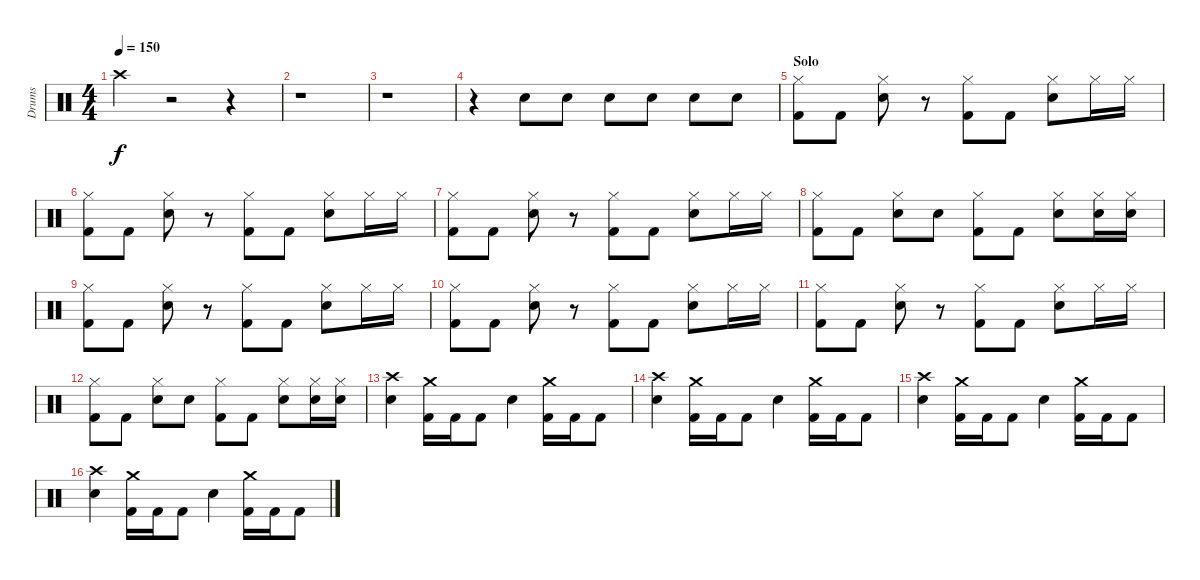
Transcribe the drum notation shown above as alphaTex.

\track ("Drums" "Drums") {instrument percussion}
\staff {score}
\articulation defaults
\ts (4 4)
\tempo 150
\clef neutral
\ks c "Crash high (hit)".4{dy f}
r.2 r.4 |
r.1 |
r.1 |
r.4 "Electric Snare (hit)".8 "Electric Snare (hit)".8 "Electric Snare (hit)".8 "Electric Snare (hit)".8 "Electric Snare (hit)".8 "Electric Snare (hit)".8 |
\section ("" "Solo")
("Hi-Hat (closed)" "Kick (hit) 2").8 "Kick (hit) 2".8 ("Hi-Hat (closed)" "Electric Snare (hit)").8 r.8 ("Hi-Hat (closed)" "Kick (hit) 2").8 "Kick (hit) 2".8 ("Hi-Hat (closed)" "Electric Snare (hit)").8 "Hi-Hat (closed)".16 "Hi-Hat (closed)".16 |
("Hi-Hat (closed)" "Kick (hit) 2").8 "Kick (hit) 2".8 ("Hi-Hat (closed)" "Electric Snare (hit)").8 r.8 ("Hi-Hat (closed)" "Kick (hit) 2").8 "Kick (hit) 2".8 ("Hi-Hat (closed)" "Electric Snare (hit)").8 "Hi-Hat (closed)".16 "Hi-Hat (closed)".16 |
("Hi-Hat (closed)" "Kick (hit) 2").8 "Kick (hit) 2".8 ("Hi-Hat (closed)" "Electric Snare (hit)").8 r.8 ("Hi-Hat (closed)" "Kick (hit) 2").8 "Kick (hit) 2".8 ("Hi-Hat (closed)" "Electric Snare (hit)").8 "Hi-Hat (closed)".16 "Hi-Hat (closed)".16 |
("Hi-Hat (closed)" "Kick (hit) 2").8 "Kick (hit) 2".8 ("Hi-Hat (closed)" "Electric Snare (hit)").8 "Electric Snare (hit)".8 ("Hi-Hat (closed)" "Kick (hit) 2").8 "Kick (hit) 2".8 ("Hi-Hat (closed)" "Electric Snare (hit)").8 ("Hi-Hat (closed)" "Electric Snare (hit)").16 ("Hi-Hat (closed)" "Electric Snare (hit)").16 |
("Hi-Hat (closed)" "Kick (hit) 2").8 "Kick (hit) 2".8 ("Hi-Hat (closed)" "Electric Snare (hit)").8 r.8 ("Hi-Hat (closed)" "Kick (hit) 2").8 "Kick (hit) 2".8 ("Hi-Hat (closed)" "Electric Snare (hit)").8 "Hi-Hat (closed)".16 "Hi-Hat (closed)".16 |
("Hi-Hat (closed)" "Kick (hit) 2").8 "Kick (hit) 2".8 ("Hi-Hat (closed)" "Electric Snare (hit)").8 r.8 ("Hi-Hat (closed)" "Kick (hit) 2").8 "Kick (hit) 2".8 ("Hi-Hat (closed)" "Electric Snare (hit)").8 "Hi-Hat (closed)".16 "Hi-Hat (closed)".16 |
("Hi-Hat (closed)" "Kick (hit) 2").8 "Kick (hit) 2".8 ("Hi-Hat (closed)" "Electric Snare (hit)").8 r.8 ("Hi-Hat (closed)" "Kick (hit) 2").8 "Kick (hit) 2".8 ("Hi-Hat (closed)" "Electric Snare (hit)").8 "Hi-Hat (closed)".16 "Hi-Hat (closed)".16 |
("Hi-Hat (closed)" "Kick (hit) 2").8 "Kick (hit) 2".8 ("Hi-Hat (closed)" "Electric Snare (hit)").8 "Electric Snare (hit)".8 ("Hi-Hat (closed)" "Kick (hit) 2").8 "Kick (hit) 2".8 ("Hi-Hat (closed)" "Electric Snare (hit)").8 ("Hi-Hat (closed)" "Electric Snare (hit)").16 ("Hi-Hat (closed)" "Electric Snare (hit)").16 |
("Crash high (hit)" "Electric Snare (hit)").4 ("Crash medium (hit)" "Kick (hit) 2").16 "Kick (hit) 2".16 "Kick (hit) 2".8 "Electric Snare (hit)".4 ("Crash medium (hit)" "Kick (hit) 2").16 "Kick (hit) 2".16 "Kick (hit) 2".8 |
("Crash high (hit)" "Electric Snare (hit)").4 ("Crash medium (hit)" "Kick (hit) 2").16 "Kick (hit) 2".16 "Kick (hit) 2".8 "Electric Snare (hit)".4 ("Crash medium (hit)" "Kick (hit) 2").16 "Kick (hit) 2".16 "Kick (hit) 2".8 |
("Crash high (hit)" "Electric Snare (hit)").4 ("Crash medium (hit)" "Kick (hit) 2").16 "Kick (hit) 2".16 "Kick (hit) 2".8 "Electric Snare (hit)".4 ("Crash medium (hit)" "Kick (hit) 2").16 "Kick (hit) 2".16 "Kick (hit) 2".8 |
("Crash high (hit)" "Electric Snare (hit)").4 ("Crash medium (hit)" "Kick (hit) 2").16 "Kick (hit) 2".16 "Kick (hit) 2".8 "Electric Snare (hit)".4 ("Crash medium (hit)" "Kick (hit) 2").16 "Kick (hit) 2".16 "Kick (hit) 2".8
